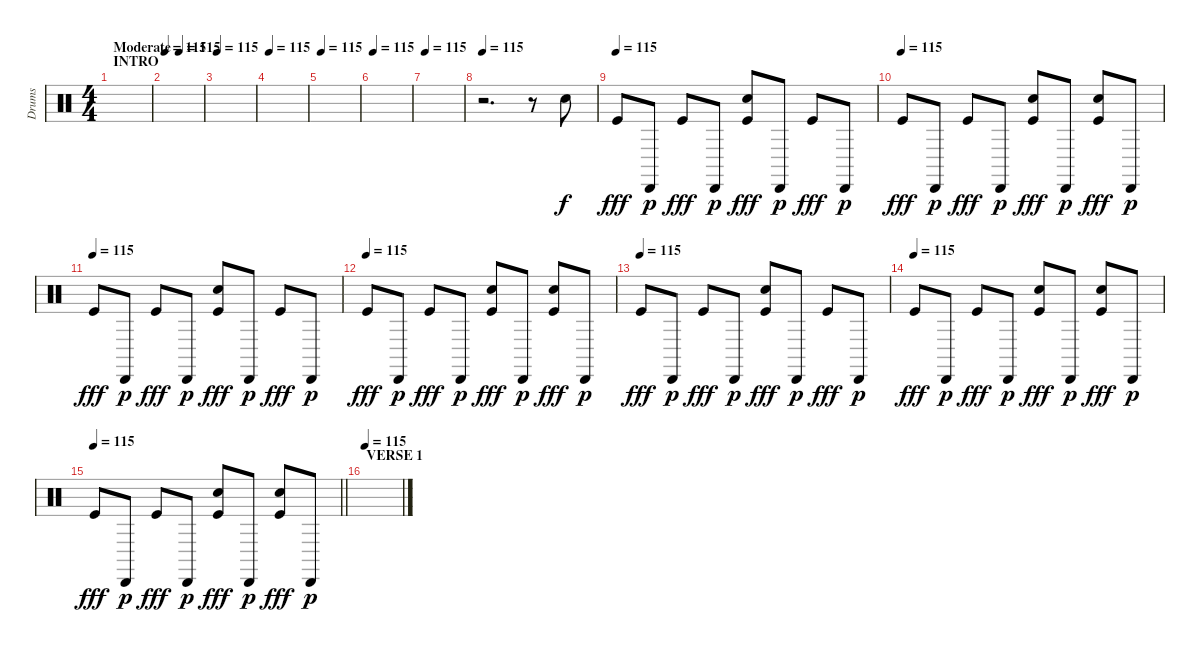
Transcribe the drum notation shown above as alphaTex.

\track ("Drums" "Drums") {instrument percussion}
\staff {score}
\articulation defaults
\ts (4 4)
\section ("" "INTRO")
\tempo (115 "Moderate")
\clef neutral
\ks c
|
\tempo 115
|
\tempo 115
|
\tempo 115
|
\tempo 115
|
\tempo 115
|
\tempo 115
|
\tempo 115
r.2{d} r.8 "Hand Clap (hit)".8 |
\tempo (115)
"Kick (hit)".8{dy fff} "Cabasa (hit)".8{dy p} "Kick (hit)".8{dy fff} "Cabasa (hit)".8{dy p} ("Electric Snare (hit)" "Kick (hit)").8{dy fff} "Cabasa (hit)".8{dy p} "Kick (hit)".8{dy fff} "Cabasa (hit)".8{dy p} |
\tempo (115)
"Kick (hit)".8{dy fff} "Cabasa (hit)".8{dy p} "Kick (hit)".8{dy fff} "Cabasa (hit)".8{dy p} ("Electric Snare (hit)" "Kick (hit)").8{dy fff} "Cabasa (hit)".8{dy p} ("Hand Clap (hit)" "Kick (hit)").8{dy fff} "Cabasa (hit)".8{dy p} |
\tempo (115)
"Kick (hit)".8{dy fff} "Cabasa (hit)".8{dy p} "Kick (hit)".8{dy fff} "Cabasa (hit)".8{dy p} ("Electric Snare (hit)" "Kick (hit)").8{dy fff} "Cabasa (hit)".8{dy p} "Kick (hit)".8{dy fff} "Cabasa (hit)".8{dy p} |
\tempo (115)
"Kick (hit)".8{dy fff} "Cabasa (hit)".8{dy p} "Kick (hit)".8{dy fff} "Cabasa (hit)".8{dy p} ("Electric Snare (hit)" "Kick (hit)").8{dy fff} "Cabasa (hit)".8{dy p} ("Hand Clap (hit)" "Kick (hit)").8{dy fff} "Cabasa (hit)".8{dy p} |
\tempo (115)
"Kick (hit)".8{dy fff} "Cabasa (hit)".8{dy p} "Kick (hit)".8{dy fff} "Cabasa (hit)".8{dy p} ("Electric Snare (hit)" "Kick (hit)").8{dy fff} "Cabasa (hit)".8{dy p} "Kick (hit)".8{dy fff} "Cabasa (hit)".8{dy p} |
\tempo (115)
"Kick (hit)".8{dy fff} "Cabasa (hit)".8{dy p} "Kick (hit)".8{dy fff} "Cabasa (hit)".8{dy p} ("Electric Snare (hit)" "Kick (hit)").8{dy fff} "Cabasa (hit)".8{dy p} ("Hand Clap (hit)" "Kick (hit)").8{dy fff} "Cabasa (hit)".8{dy p} |
\tempo 115
\barLineRight lightlight "Kick (hit)".8{dy fff} "Cabasa (hit)".8{dy p} "Kick (hit)".8{dy fff} "Cabasa (hit)".8{dy p}
("Electric Snare (hit)" "Kick (hit)").8{dy fff} "Cabasa (hit)".8{dy p} ("Hand Clap (hit)" "Kick (hit)").8{dy fff} "Cabasa (hit)".8{dy p} |
\section ("" "VERSE 1")
\tempo 115
